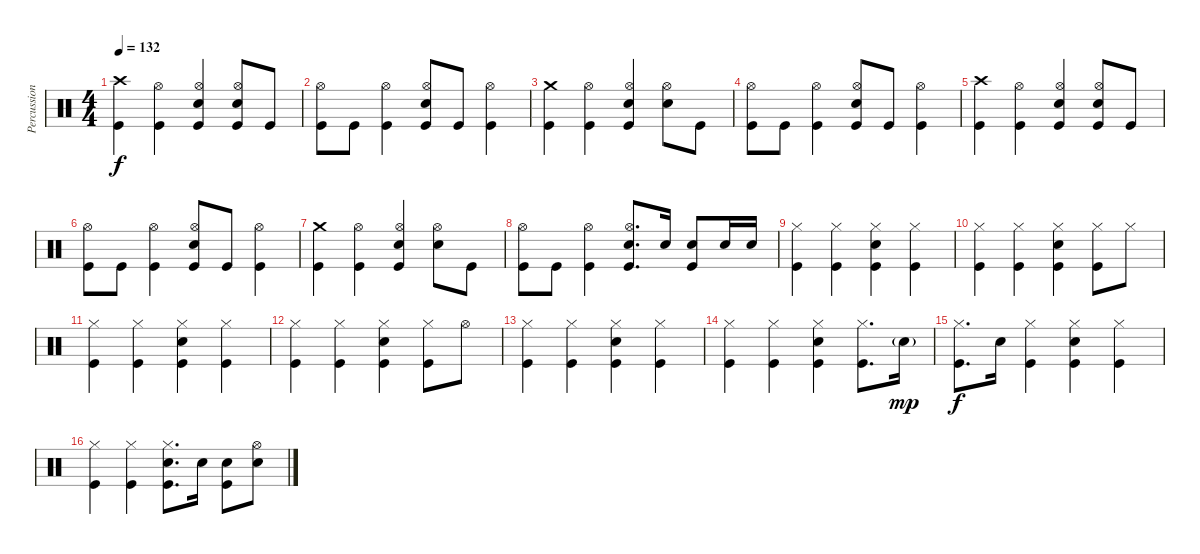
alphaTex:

\track ("Percussion" "Percussion") {instrument percussion}
\staff {score}
\articulation defaults
\ts (4 4)
\tempo 132
\clef neutral
\ks c
("Crash high (hit)" "Kick (hit)").4{dy f} ("Hi-Hat (open)" "Kick (hit)").4 ("Hi-Hat (open)" "Electric Snare (hit)" "Kick (hit)").4 ("Hi-Hat (open)" "Electric Snare (hit)" "Kick (hit)").8 "Kick (hit)".8 |
("Hi-Hat (open)" "Kick (hit)").8 "Kick (hit)".8 ("Hi-Hat (open)" "Kick (hit)").4 ("Hi-Hat (open)" "Electric Snare (hit)" "Kick (hit)").8 "Kick (hit)".8 ("Hi-Hat (open)" "Kick (hit)").4 |
("Crash medium (hit)" "Kick (hit)").4 ("Hi-Hat (open)" "Kick (hit)").4 ("Hi-Hat (open)" "Electric Snare (hit)" "Kick (hit)").4 ("Hi-Hat (open)" "Electric Snare (hit)").8 "Kick (hit)".8 |
("Hi-Hat (open)" "Kick (hit)").8 "Kick (hit)".8 ("Hi-Hat (open)" "Kick (hit)").4 ("Hi-Hat (open)" "Electric Snare (hit)" "Kick (hit)").8 "Kick (hit)".8 ("Hi-Hat (open)" "Kick (hit)").4 |
("Crash high (hit)" "Kick (hit)").4 ("Hi-Hat (open)" "Kick (hit)").4 ("Hi-Hat (open)" "Electric Snare (hit)" "Kick (hit)").4 ("Hi-Hat (open)" "Electric Snare (hit)" "Kick (hit)").8 "Kick (hit)".8 |
("Hi-Hat (open)" "Kick (hit)").8 "Kick (hit)".8 ("Hi-Hat (open)" "Kick (hit)").4 ("Hi-Hat (open)" "Electric Snare (hit)" "Kick (hit)").8 "Kick (hit)".8 ("Hi-Hat (open)" "Kick (hit)").4 |
("Crash medium (hit)" "Kick (hit)").4 ("Hi-Hat (open)" "Kick (hit)").4 ("Hi-Hat (open)" "Electric Snare (hit)" "Kick (hit)").4 ("Hi-Hat (open)" "Electric Snare (hit)").8 "Kick (hit)".8 |
("Hi-Hat (open)" "Kick (hit)").8 "Kick (hit)".8 ("Hi-Hat (open)" "Kick (hit)").4 ("Hi-Hat (open)" "Electric Snare (hit)" "Kick (hit)").8{d} "Electric Snare (hit)".16 ("Electric Snare (hit)" "Kick (hit)").8 "Electric Snare (hit)".16 "Electric Snare (hit)".16 |
("Hi-Hat (closed)" "Kick (hit)").4 ("Hi-Hat (closed)" "Kick (hit)").4 ("Hi-Hat (closed)" "Electric Snare (hit)" "Kick (hit)").4 ("Hi-Hat (closed)" "Kick (hit)").4 |
("Hi-Hat (closed)" "Kick (hit)").4 ("Hi-Hat (closed)" "Kick (hit)").4 ("Hi-Hat (closed)" "Electric Snare (hit)" "Kick (hit)").4 ("Hi-Hat (closed)" "Kick (hit)").8 "Hi-Hat (closed)".8 |
("Hi-Hat (closed)" "Kick (hit)").4 ("Hi-Hat (closed)" "Kick (hit)").4 ("Hi-Hat (closed)" "Electric Snare (hit)" "Kick (hit)").4 ("Hi-Hat (closed)" "Kick (hit)").4 |
("Hi-Hat (closed)" "Kick (hit)").4 ("Hi-Hat (closed)" "Kick (hit)").4 ("Hi-Hat (closed)" "Electric Snare (hit)" "Kick (hit)").4 ("Hi-Hat (closed)" "Kick (hit)").8 "Hi-Hat (open)".8 |
("Hi-Hat (closed)" "Kick (hit)").4 ("Hi-Hat (closed)" "Kick (hit)").4 ("Hi-Hat (closed)" "Electric Snare (hit)" "Kick (hit)").4 ("Hi-Hat (closed)" "Kick (hit)").4 |
("Hi-Hat (closed)" "Kick (hit)").4 ("Hi-Hat (closed)" "Kick (hit)").4 ("Hi-Hat (closed)" "Electric Snare (hit)" "Kick (hit)").4 ("Hi-Hat (closed)" "Kick (hit)").8{d} "Electric Snare (hit)"{g}.16{dy mp} |
("Hi-Hat (closed)" "Kick (hit)").8{d dy f} "Electric Snare (hit)".16 ("Hi-Hat (closed)" "Kick (hit)").4 ("Hi-Hat (closed)" "Electric Snare (hit)" "Kick (hit)").4 ("Hi-Hat (closed)" "Kick (hit)").4 |
("Hi-Hat (closed)" "Kick (hit)").4 ("Hi-Hat (closed)" "Kick (hit)").4 ("Hi-Hat (closed)" "Electric Snare (hit)" "Kick (hit)").8{d} "Electric Snare (hit)".16 ("Electric Snare (hit)" "Kick (hit)").8 ("Hi-Hat (open)" "Electric Snare (hit)").8
